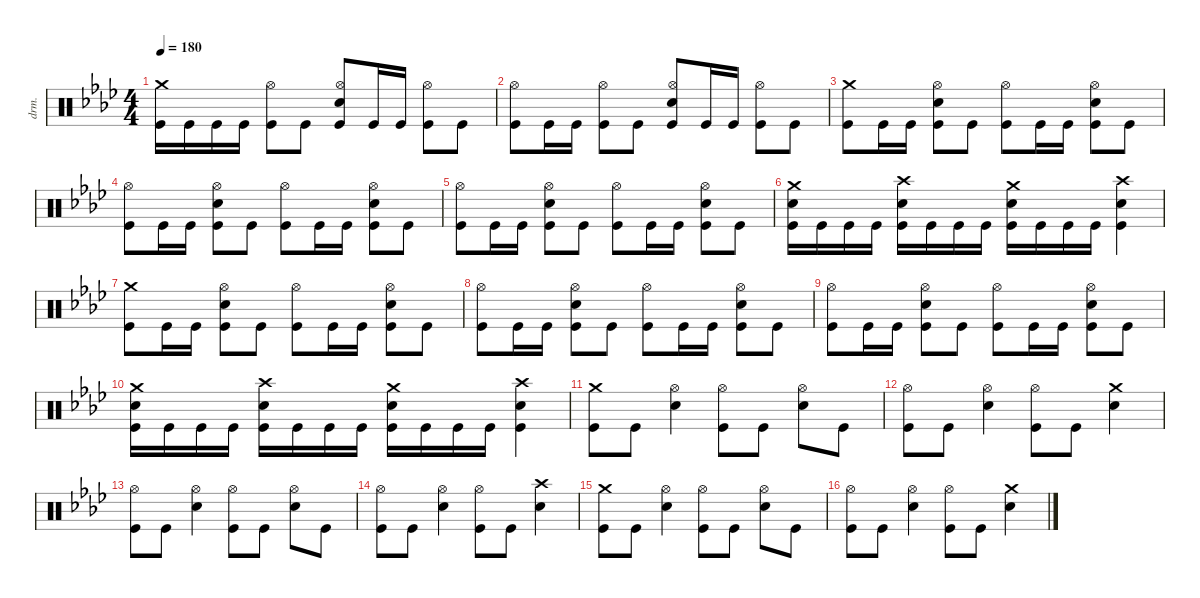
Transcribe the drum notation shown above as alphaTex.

\defaultSystemsLayout 4
\hideDynamics
\bracketExtendMode nobrackets
\track ("Percussion" "drm.") {instrument percussion}
\staff {score}
\articulation defaults
\ts (4 4)
\tempo 180
\clef neutral
\ks fminor
("Crash medium (hit)"{acc forcenatural} "Kick (hit)"{acc forcenatural}).16{dy f beam Down} "Kick (hit)"{acc forcenatural}.16{beam Down} "Kick (hit)"{acc forcenatural}.16{beam Down} "Kick (hit)"{acc forcenatural}.16{beam Down} ("Hi-Hat (open)"{acc forcenatural} "Kick (hit)"{acc forcenatural}).8{beam Down} "Kick (hit)"{acc forcenatural}.8{beam Down} ("Hi-Hat (open)"{acc forcenatural} "Snare (hit) 2"{acc forcenatural} "Kick (hit)"{acc forcenatural}).8{beam Up} "Kick (hit)"{acc forcenatural}.16{beam Up} "Kick (hit)"{acc forcenatural}.16{beam Up} ("Hi-Hat (open)"{acc forcenatural} "Kick (hit)"{acc forcenatural}).8{beam Down} "Kick (hit)"{acc forcenatural}.8{beam Down} |
("Hi-Hat (open)"{acc forcenatural} "Kick (hit)"{acc forcenatural}).8{beam Down} "Kick (hit)"{acc forcenatural}.16{beam Down} "Kick (hit)"{acc forcenatural}.16{beam Down} ("Hi-Hat (open)"{acc forcenatural} "Kick (hit)"{acc forcenatural}).8{beam Down} "Kick (hit)"{acc forcenatural}.8{beam Down} ("Hi-Hat (open)"{acc forcenatural} "Snare (hit) 2"{acc forcenatural} "Kick (hit)"{acc forcenatural}).8{beam Up} "Kick (hit)"{acc forcenatural}.16{beam Up} "Kick (hit)"{acc forcenatural}.16{beam Up} ("Hi-Hat (open)"{acc forcenatural} "Kick (hit)"{acc forcenatural}).8{beam Down} "Kick (hit)"{acc forcenatural}.8{beam Down} |
("Crash medium (hit)"{acc forcenatural} "Kick (hit)"{acc forcenatural}).8{beam Down} "Kick (hit)"{acc forcenatural}.16{beam Down} "Kick (hit)"{acc forcenatural}.16{beam Down} ("Hi-Hat (open)"{acc forcenatural} "Snare (hit) 2"{acc forcenatural} "Kick (hit)"{acc forcenatural}).8{beam Down} "Kick (hit)"{acc forcenatural}.8{beam Down} ("Hi-Hat (open)"{acc forcenatural} "Kick (hit)"{acc forcenatural}).8{beam Down} "Kick (hit)"{acc forcenatural}.16{beam Down} "Kick (hit)"{acc forcenatural}.16{beam Down} ("Hi-Hat (open)"{acc forcenatural} "Snare (hit) 2"{acc forcenatural} "Kick (hit)"{acc forcenatural}).8{beam Down} "Kick (hit)"{acc forcenatural}.8{beam Down} |
("Hi-Hat (open)"{acc forcenatural} "Kick (hit)"{acc forcenatural}).8{beam Down} "Kick (hit)"{acc forcenatural}.16{beam Down} "Kick (hit)"{acc forcenatural}.16{beam Down} ("Hi-Hat (open)"{acc forcenatural} "Snare (hit) 2"{acc forcenatural} "Kick (hit)"{acc forcenatural}).8{beam Down} "Kick (hit)"{acc forcenatural}.8{beam Down} ("Hi-Hat (open)"{acc forcenatural} "Kick (hit)"{acc forcenatural}).8{beam Down} "Kick (hit)"{acc forcenatural}.16{beam Down} "Kick (hit)"{acc forcenatural}.16{beam Down} ("Hi-Hat (open)"{acc forcenatural} "Snare (hit) 2"{acc forcenatural} "Kick (hit)"{acc forcenatural}).8{beam Down} "Kick (hit)"{acc forcenatural}.8{beam Down} |
("Hi-Hat (open)"{acc forcenatural} "Kick (hit)"{acc forcenatural}).8{beam Down} "Kick (hit)"{acc forcenatural}.16{beam Down} "Kick (hit)"{acc forcenatural}.16{beam Down} ("Hi-Hat (open)"{acc forcenatural} "Snare (hit) 2"{acc forcenatural} "Kick (hit)"{acc forcenatural}).8{beam Down} "Kick (hit)"{acc forcenatural}.8{beam Down} ("Hi-Hat (open)"{acc forcenatural} "Kick (hit)"{acc forcenatural}).8{beam Down} "Kick (hit)"{acc forcenatural}.16{beam Down} "Kick (hit)"{acc forcenatural}.16{beam Down} ("Hi-Hat (open)"{acc forcenatural} "Snare (hit) 2"{acc forcenatural} "Kick (hit)"{acc forcenatural}).8{beam Down} "Kick (hit)"{acc forcenatural}.8{beam Down} |
("Crash medium (hit)"{acc forcenatural} "Snare (hit) 2"{acc forcenatural} "Kick (hit)"{acc forcenatural}).16{beam Down} "Kick (hit)"{acc forcenatural}.16{beam Down} "Kick (hit)"{acc forcenatural}.16{beam Down} "Kick (hit)"{acc forcenatural}.16{beam Down} ("Crash high (hit)"{acc forcenatural} "Snare (hit) 2"{acc forcenatural} "Kick (hit)"{acc forcenatural}).16{beam Down} "Kick (hit)"{acc forcenatural}.16{beam Down} "Kick (hit)"{acc forcenatural}.16{beam Down} "Kick (hit)"{acc forcenatural}.16{beam Down} ("Crash medium (hit)"{acc forcenatural} "Snare (hit) 2"{acc forcenatural} "Kick (hit)"{acc forcenatural}).16{beam Down} "Kick (hit)"{acc forcenatural}.16{beam Down} "Kick (hit)"{acc forcenatural}.16{beam Down} "Kick (hit)"{acc forcenatural}.16{beam Down} ("Crash high (hit)"{acc forcenatural} "Snare (hit) 2"{acc forcenatural} "Kick (hit)"{acc forcenatural}).4{beam Down} |
("Crash medium (hit)"{acc forcenatural} "Kick (hit)"{acc forcenatural}).8{beam Down} "Kick (hit)"{acc forcenatural}.16{beam Down} "Kick (hit)"{acc forcenatural}.16{beam Down} ("Hi-Hat (open)"{acc forcenatural} "Snare (hit) 2"{acc forcenatural} "Kick (hit)"{acc forcenatural}).8{beam Down} "Kick (hit)"{acc forcenatural}.8{beam Down} ("Hi-Hat (open)"{acc forcenatural} "Kick (hit)"{acc forcenatural}).8{beam Down} "Kick (hit)"{acc forcenatural}.16{beam Down} "Kick (hit)"{acc forcenatural}.16{beam Down} ("Hi-Hat (open)"{acc forcenatural} "Snare (hit) 2"{acc forcenatural} "Kick (hit)"{acc forcenatural}).8{beam Down} "Kick (hit)"{acc forcenatural}.8{beam Down} |
("Hi-Hat (open)"{acc forcenatural} "Kick (hit)"{acc forcenatural}).8{beam Down} "Kick (hit)"{acc forcenatural}.16{beam Down} "Kick (hit)"{acc forcenatural}.16{beam Down} ("Hi-Hat (open)"{acc forcenatural} "Snare (hit) 2"{acc forcenatural} "Kick (hit)"{acc forcenatural}).8{beam Down} "Kick (hit)"{acc forcenatural}.8{beam Down} ("Hi-Hat (open)"{acc forcenatural} "Kick (hit)"{acc forcenatural}).8{beam Down} "Kick (hit)"{acc forcenatural}.16{beam Down} "Kick (hit)"{acc forcenatural}.16{beam Down} ("Hi-Hat (open)"{acc forcenatural} "Snare (hit) 2"{acc forcenatural} "Kick (hit)"{acc forcenatural}).8{beam Down} "Kick (hit)"{acc forcenatural}.8{beam Down} |
("Hi-Hat (open)"{acc forcenatural} "Kick (hit)"{acc forcenatural}).8{beam Down} "Kick (hit)"{acc forcenatural}.16{beam Down} "Kick (hit)"{acc forcenatural}.16{beam Down} ("Hi-Hat (open)"{acc forcenatural} "Snare (hit) 2"{acc forcenatural} "Kick (hit)"{acc forcenatural}).8{beam Down} "Kick (hit)"{acc forcenatural}.8{beam Down} ("Hi-Hat (open)"{acc forcenatural} "Kick (hit)"{acc forcenatural}).8{beam Down} "Kick (hit)"{acc forcenatural}.16{beam Down} "Kick (hit)"{acc forcenatural}.16{beam Down} ("Hi-Hat (open)"{acc forcenatural} "Snare (hit) 2"{acc forcenatural} "Kick (hit)"{acc forcenatural}).8{beam Down} "Kick (hit)"{acc forcenatural}.8{beam Down} |
("Crash medium (hit)"{acc forcenatural} "Snare (hit) 2"{acc forcenatural} "Kick (hit)"{acc forcenatural}).16{beam Down} "Kick (hit)"{acc forcenatural}.16{beam Down} "Kick (hit)"{acc forcenatural}.16{beam Down} "Kick (hit)"{acc forcenatural}.16{beam Down} ("Crash high (hit)"{acc forcenatural} "Snare (hit) 2"{acc forcenatural} "Kick (hit)"{acc forcenatural}).16{beam Down} "Kick (hit)"{acc forcenatural}.16{beam Down} "Kick (hit)"{acc forcenatural}.16{beam Down} "Kick (hit)"{acc forcenatural}.16{beam Down} ("Crash medium (hit)"{acc forcenatural} "Snare (hit) 2"{acc forcenatural} "Kick (hit)"{acc forcenatural}).16{beam Down} "Kick (hit)"{acc forcenatural}.16{beam Down} "Kick (hit)"{acc forcenatural}.16{beam Down} "Kick (hit)"{acc forcenatural}.16{beam Down} ("Crash high (hit)"{acc forcenatural} "Snare (hit) 2"{acc forcenatural} "Kick (hit)"{acc forcenatural}).4{beam Down} |
("Crash medium (hit)"{acc forcenatural} "Kick (hit)"{acc forcenatural}).8{beam Down} "Kick (hit)"{acc forcenatural}.8{beam Down} ("Hi-Hat (open)"{acc forcenatural} "Snare (hit) 2"{acc forcenatural}).4{beam Down} ("Hi-Hat (open)"{acc forcenatural} "Kick (hit)"{acc forcenatural}).8{beam Down} "Kick (hit)"{acc forcenatural}.8{beam Down} ("Hi-Hat (open)"{acc forcenatural} "Snare (hit) 2"{acc forcenatural}).8{beam Down} "Kick (hit)"{acc forcenatural}.8{beam Down} |
("Hi-Hat (open)"{acc forcenatural} "Kick (hit)"{acc forcenatural}).8{beam Down} "Kick (hit)"{acc forcenatural}.8{beam Down} ("Hi-Hat (open)"{acc forcenatural} "Snare (hit) 2"{acc forcenatural}).4{beam Down} ("Hi-Hat (open)"{acc forcenatural} "Kick (hit)"{acc forcenatural}).8{beam Down} "Kick (hit)"{acc forcenatural}.8{beam Down} ("Crash medium (hit)"{acc forcenatural} "Snare (hit) 2"{acc forcenatural}).4{beam Down} |
("Hi-Hat (open)"{acc forcenatural} "Kick (hit)"{acc forcenatural}).8{beam Down} "Kick (hit)"{acc forcenatural}.8{beam Down} ("Hi-Hat (open)"{acc forcenatural} "Snare (hit) 2"{acc forcenatural}).4{beam Down} ("Hi-Hat (open)"{acc forcenatural} "Kick (hit)"{acc forcenatural}).8{beam Down} "Kick (hit)"{acc forcenatural}.8{beam Down} ("Hi-Hat (open)"{acc forcenatural} "Snare (hit) 2"{acc forcenatural}).8{beam Down} "Kick (hit)"{acc forcenatural}.8{beam Down} |
("Hi-Hat (open)"{acc forcenatural} "Kick (hit)"{acc forcenatural}).8{beam Down} "Kick (hit)"{acc forcenatural}.8{beam Down} ("Hi-Hat (open)"{acc forcenatural} "Snare (hit) 2"{acc forcenatural}).4{beam Down} ("Hi-Hat (open)"{acc forcenatural} "Kick (hit)"{acc forcenatural}).8{beam Down} "Kick (hit)"{acc forcenatural}.8{beam Down} ("Crash high (hit)"{acc forcenatural} "Snare (hit) 2"{acc forcenatural}).4{beam Down} |
("Crash medium (hit)"{acc forcenatural} "Kick (hit)"{acc forcenatural}).8{beam Down} "Kick (hit)"{acc forcenatural}.8{beam Down} ("Hi-Hat (open)"{acc forcenatural} "Snare (hit) 2"{acc forcenatural}).4{beam Down} ("Hi-Hat (open)"{acc forcenatural} "Kick (hit)"{acc forcenatural}).8{beam Down} "Kick (hit)"{acc forcenatural}.8{beam Down} ("Hi-Hat (open)"{acc forcenatural} "Snare (hit) 2"{acc forcenatural}).8{beam Down} "Kick (hit)"{acc forcenatural}.8{beam Down} |
("Hi-Hat (open)"{acc forcenatural} "Kick (hit)"{acc forcenatural}).8{beam Down} "Kick (hit)"{acc forcenatural}.8{beam Down} ("Hi-Hat (open)"{acc forcenatural} "Snare (hit) 2"{acc forcenatural}).4{beam Down} ("Hi-Hat (open)"{acc forcenatural} "Kick (hit)"{acc forcenatural}).8{beam Down} "Kick (hit)"{acc forcenatural}.8{beam Down} ("Crash medium (hit)"{acc forcenatural} "Snare (hit) 2"{acc forcenatural}).4{beam Down}
